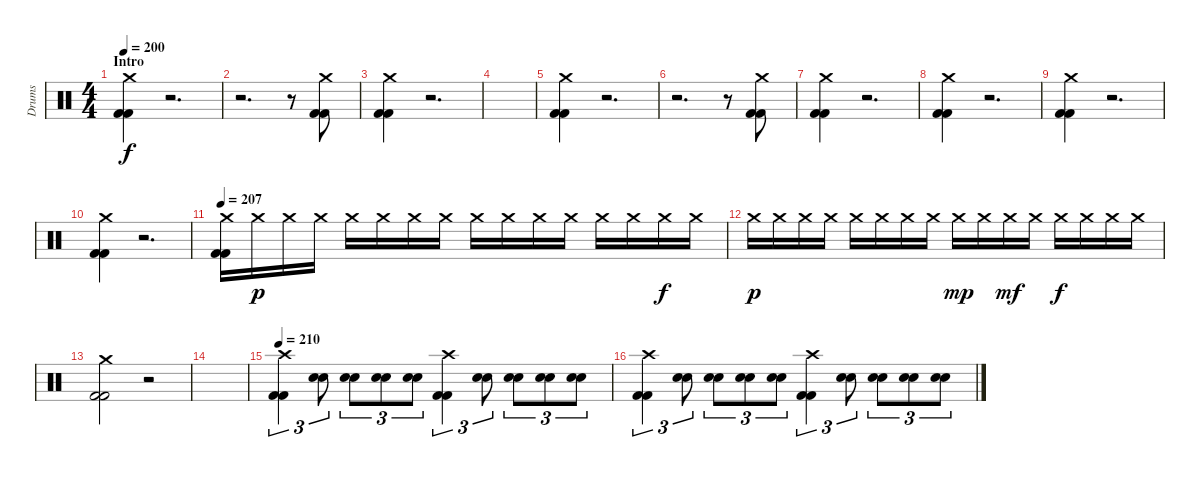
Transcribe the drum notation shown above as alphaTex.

\track ("Drums" "Drums") {instrument percussion}
\staff {score}
\articulation defaults
\ts (4 4)
\section ("" "Intro")
\tempo 200
\clef neutral
\ks c
("Crash medium (hit)" "Kick (hit) 2" "Kick (hit) 2").4{dy f} r.2{d} |
r.2{d} r.8 ("Crash medium (hit)" "Kick (hit) 2" "Kick (hit) 2").8 |
("Crash medium (hit)" "Kick (hit) 2" "Kick (hit) 2").4 r.2{d} |
|
("Crash medium (hit)" "Kick (hit) 2" "Kick (hit) 2").4 r.2{d} |
r.2{d} r.8 ("Crash medium (hit)" "Kick (hit) 2" "Kick (hit) 2").8 |
("Crash medium (hit)" "Kick (hit) 2" "Kick (hit) 2").4 r.2{d} |
("Crash medium (hit)" "Kick (hit) 2" "Kick (hit) 2").4 r.2{d} |
("Crash medium (hit)" "Kick (hit) 2" "Kick (hit) 2").4 r.2{d} |
("Crash medium (hit)" "Kick (hit) 2" "Kick (hit) 2").4 r.2{d} |
\tempo 207
("Crash medium (hit)" "Kick (hit) 2" "Kick (hit) 2").16 "Crash medium (hit)".16{dy p} "Crash medium (hit)".16 "Crash medium (hit)".16 "Crash medium (hit)".16 "Crash medium (hit)".16 "Crash medium (hit)".16 "Crash medium (hit)".16 "Crash medium (hit)".16 "Crash medium (hit)".16 "Crash medium (hit)".16 "Crash medium (hit)".16 "Crash medium (hit)".16 "Crash medium (hit)".16 "Crash medium (hit)".16{dy f} "Crash medium (hit)".16 |
"Crash medium (hit)".16{dy p} "Crash medium (hit)".16 "Crash medium (hit)".16 "Crash medium (hit)".16 "Crash medium (hit)".16 "Crash medium (hit)".16 "Crash medium (hit)".16 "Crash medium (hit)".16 "Crash medium (hit)".16{dy mp} "Crash medium (hit)".16 "Crash medium (hit)".16{dy mf} "Crash medium (hit)".16 "Crash medium (hit)".16{dy f} "Crash medium (hit)".16 "Crash medium (hit)".16 "Crash medium (hit)".16 |
("Crash medium (hit)" "Kick (hit) 2" "Kick (hit) 2").2 r.2 |
|
\tempo 210
("Crash high (hit)" "Kick (hit) 2" "Kick (hit) 2").4{tu (3 2)} ("Snare (hit) 2" "Snare (hit) 2").8{tu (3 2)} ("Snare (hit) 2" "Snare (hit) 2").8{tu (3 2)} ("Snare (hit) 2" "Snare (hit) 2").8{tu (3 2)} ("Snare (hit) 2" "Snare (hit) 2").8{tu (3 2)} ("Crash high (hit)" "Kick (hit) 2" "Kick (hit) 2").4{tu (3 2)} ("Snare (hit) 2" "Snare (hit) 2").8{tu (3 2)} ("Snare (hit) 2" "Snare (hit) 2").8{tu (3 2)} ("Snare (hit) 2" "Snare (hit) 2").8{tu (3 2)} ("Snare (hit) 2" "Snare (hit) 2").8{tu (3 2)} |
("Crash high (hit)" "Kick (hit) 2" "Kick (hit) 2").4{tu (3 2)} ("Snare (hit) 2" "Snare (hit) 2").8{tu (3 2)} ("Snare (hit) 2" "Snare (hit) 2").8{tu (3 2)} ("Snare (hit) 2" "Snare (hit) 2").8{tu (3 2)} ("Snare (hit) 2" "Snare (hit) 2").8{tu (3 2)} ("Crash high (hit)" "Kick (hit) 2" "Kick (hit) 2").4{tu (3 2)} ("Snare (hit) 2" "Snare (hit) 2").8{tu (3 2)} ("Snare (hit) 2" "Snare (hit) 2").8{tu (3 2)} ("Snare (hit) 2" "Snare (hit) 2").8{tu (3 2)} ("Snare (hit) 2" "Snare (hit) 2").8{tu (3 2)}
